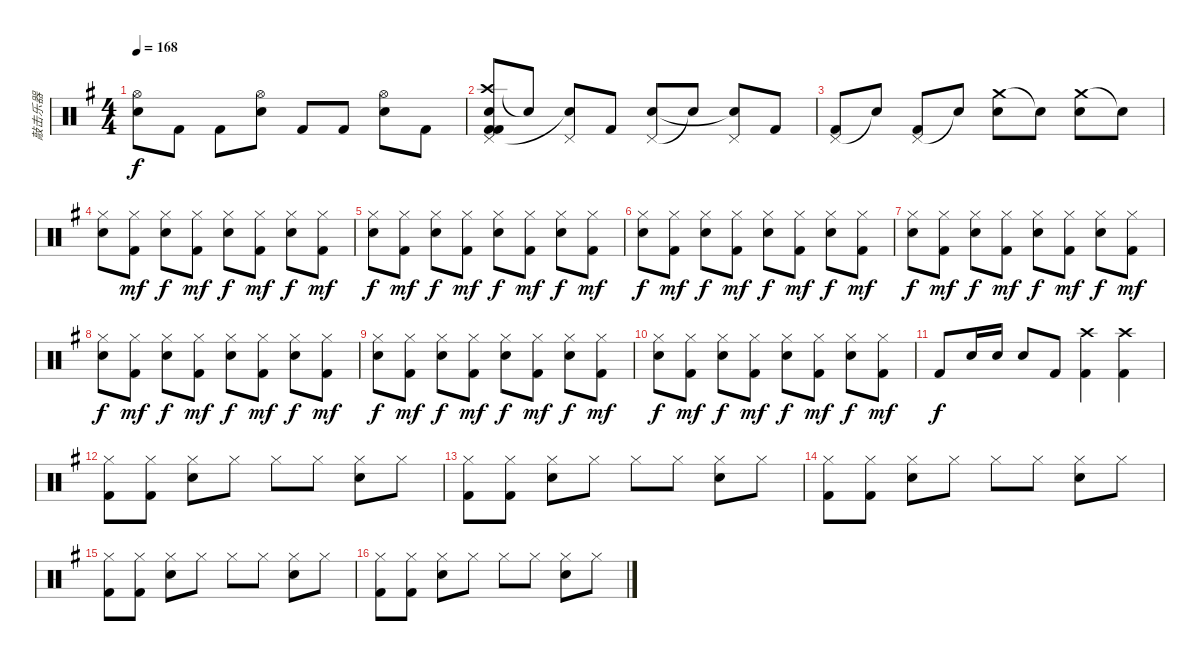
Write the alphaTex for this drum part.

\track ("敲击乐器" "敲击乐器") {instrument percussion}
\staff {score}
\articulation defaults
\ts (4 4)
\tempo 168
\clef neutral
\ks g
("Hi-Hat (open)" "Snare (hit) 2").8{dy f} "Kick (hit) 2".8 "Kick (hit) 2".8 ("Hi-Hat (open)" "Snare (hit) 2").8 "Kick (hit) 2".8 "Kick (hit) 2".8 ("Hi-Hat (open)" "Snare (hit) 2").8 "Kick (hit) 2".8 |
("Crash high (hit)" "Pedal Hi-Hat (hit)" "Snare (hit) 2" "Kick (hit) 2" "Kick (hit) 2").8 "Snare (hit)"{t}.8 ("Pedal Hi-Hat (hit)" "Snare (hit)"{t}).8 "Kick (hit) 2".8 ("Pedal Hi-Hat (hit)" "Electric Snare (hit)").8 "Snare (hit)"{t}.8 ("Pedal Hi-Hat (hit)" "Snare (hit)"{t}).8 "Kick (hit) 2".8 |
("Pedal Hi-Hat (hit)" "Kick (hit) 2").8 "Snare (hit)"{t}.8 ("Pedal Hi-Hat (hit)" "Kick (hit) 2").8 "Snare (hit)"{t}.8 ("Crash medium (hit)" "Electric Snare (hit)").8 "Snare (hit)"{t}.8 ("Crash medium (hit)" "Electric Snare (hit)").8 "Snare (hit)"{t}.8 |
("Hi-Hat (closed)" "Snare (hit) 2").8 ("Hi-Hat (closed)" "Kick (hit) 2").8{dy mf} ("Hi-Hat (closed)" "Snare (hit) 2").8{dy f} ("Hi-Hat (closed)" "Kick (hit) 2").8{dy mf} ("Hi-Hat (closed)" "Snare (hit) 2").8{dy f} ("Hi-Hat (closed)" "Kick (hit) 2").8{dy mf} ("Hi-Hat (closed)" "Snare (hit) 2").8{dy f} ("Hi-Hat (closed)" "Kick (hit) 2").8{dy mf} |
("Hi-Hat (closed)" "Snare (hit) 2").8{dy f} ("Hi-Hat (closed)" "Kick (hit) 2").8{dy mf} ("Hi-Hat (closed)" "Snare (hit) 2").8{dy f} ("Hi-Hat (closed)" "Kick (hit) 2").8{dy mf} ("Hi-Hat (closed)" "Snare (hit) 2").8{dy f} ("Hi-Hat (closed)" "Kick (hit) 2").8{dy mf} ("Hi-Hat (closed)" "Snare (hit) 2").8{dy f} ("Hi-Hat (closed)" "Kick (hit) 2").8{dy mf} |
("Hi-Hat (closed)" "Snare (hit) 2").8{dy f} ("Hi-Hat (closed)" "Kick (hit) 2").8{dy mf} ("Hi-Hat (closed)" "Snare (hit) 2").8{dy f} ("Hi-Hat (closed)" "Kick (hit) 2").8{dy mf} ("Hi-Hat (closed)" "Snare (hit) 2").8{dy f} ("Hi-Hat (closed)" "Kick (hit) 2").8{dy mf} ("Hi-Hat (closed)" "Snare (hit) 2").8{dy f} ("Hi-Hat (closed)" "Kick (hit) 2").8{dy mf} |
("Hi-Hat (closed)" "Snare (hit) 2").8{dy f} ("Hi-Hat (closed)" "Kick (hit) 2").8{dy mf} ("Hi-Hat (closed)" "Snare (hit) 2").8{dy f} ("Hi-Hat (closed)" "Kick (hit) 2").8{dy mf} ("Hi-Hat (closed)" "Snare (hit) 2").8{dy f} ("Hi-Hat (closed)" "Kick (hit) 2").8{dy mf} ("Hi-Hat (closed)" "Snare (hit) 2").8{dy f} ("Hi-Hat (closed)" "Kick (hit) 2").8{dy mf} |
("Hi-Hat (closed)" "Snare (hit) 2").8{dy f} ("Hi-Hat (closed)" "Kick (hit) 2").8{dy mf} ("Hi-Hat (closed)" "Snare (hit) 2").8{dy f} ("Hi-Hat (closed)" "Kick (hit) 2").8{dy mf} ("Hi-Hat (closed)" "Snare (hit) 2").8{dy f} ("Hi-Hat (closed)" "Kick (hit) 2").8{dy mf} ("Hi-Hat (closed)" "Snare (hit) 2").8{dy f} ("Hi-Hat (closed)" "Kick (hit) 2").8{dy mf} |
("Hi-Hat (closed)" "Snare (hit) 2").8{dy f} ("Hi-Hat (closed)" "Kick (hit) 2").8{dy mf} ("Hi-Hat (closed)" "Snare (hit) 2").8{dy f} ("Hi-Hat (closed)" "Kick (hit) 2").8{dy mf} ("Hi-Hat (closed)" "Snare (hit) 2").8{dy f} ("Hi-Hat (closed)" "Kick (hit) 2").8{dy mf} ("Hi-Hat (closed)" "Snare (hit) 2").8{dy f} ("Hi-Hat (closed)" "Kick (hit) 2").8{dy mf} |
("Hi-Hat (closed)" "Snare (hit) 2").8{dy f} ("Hi-Hat (closed)" "Kick (hit) 2").8{dy mf} ("Hi-Hat (closed)" "Snare (hit) 2").8{dy f} ("Hi-Hat (closed)" "Kick (hit) 2").8{dy mf} ("Hi-Hat (closed)" "Snare (hit) 2").8{dy f} ("Hi-Hat (closed)" "Kick (hit) 2").8{dy mf} ("Hi-Hat (closed)" "Snare (hit) 2").8{dy f} ("Hi-Hat (closed)" "Kick (hit) 2").8{dy mf} |
"Kick (hit) 2".8{dy f} "Snare (hit) 2".16 "Snare (hit) 2".16 "Snare (hit) 2".8 "Kick (hit) 2".8 ("Crash high (hit)" "Kick (hit) 2").4 ("Crash high (hit)" "Kick (hit) 2").4 |
("Hi-Hat (closed)" "Kick (hit) 2").8 ("Hi-Hat (closed)" "Kick (hit) 2").8 ("Hi-Hat (closed)" "Snare (hit) 2").8 "Hi-Hat (closed)".8 "Hi-Hat (closed)".8 "Hi-Hat (closed)".8 ("Hi-Hat (closed)" "Snare (hit) 2").8 "Hi-Hat (closed)".8 |
("Hi-Hat (closed)" "Kick (hit) 2").8 ("Hi-Hat (closed)" "Kick (hit) 2").8 ("Hi-Hat (closed)" "Snare (hit) 2").8 "Hi-Hat (closed)".8 "Hi-Hat (closed)".8 "Hi-Hat (closed)".8 ("Hi-Hat (closed)" "Snare (hit) 2").8 "Hi-Hat (closed)".8 |
("Hi-Hat (closed)" "Kick (hit) 2").8 ("Hi-Hat (closed)" "Kick (hit) 2").8 ("Hi-Hat (closed)" "Snare (hit) 2").8 "Hi-Hat (closed)".8 "Hi-Hat (closed)".8 "Hi-Hat (closed)".8 ("Hi-Hat (closed)" "Snare (hit) 2").8 "Hi-Hat (closed)".8 |
("Hi-Hat (closed)" "Kick (hit) 2").8 ("Hi-Hat (closed)" "Kick (hit) 2").8 ("Hi-Hat (closed)" "Snare (hit) 2").8 "Hi-Hat (closed)".8 "Hi-Hat (closed)".8 "Hi-Hat (closed)".8 ("Hi-Hat (closed)" "Snare (hit) 2").8 "Hi-Hat (closed)".8 |
("Hi-Hat (closed)" "Kick (hit) 2").8 ("Hi-Hat (closed)" "Kick (hit) 2").8 ("Hi-Hat (closed)" "Snare (hit) 2").8 "Hi-Hat (closed)".8 "Hi-Hat (closed)".8 "Hi-Hat (closed)".8 ("Hi-Hat (closed)" "Snare (hit) 2").8 "Hi-Hat (closed)".8
